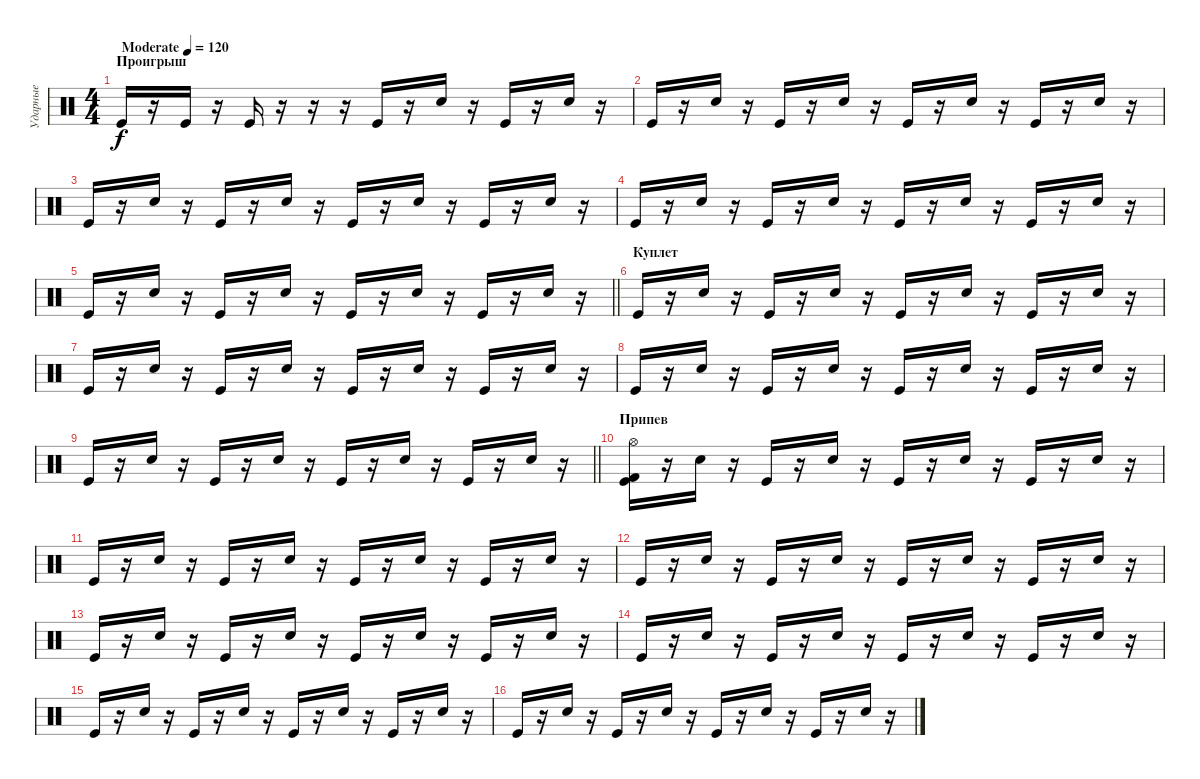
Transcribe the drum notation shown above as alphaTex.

\track ("Ударные" "Ударные") {instrument percussion}
\staff {score}
\articulation defaults
\ts (4 4)
\section ("" "Проигрыш")
\tempo (120 "Moderate")
\clef neutral
\ks c "Kick (hit)".16{dy f}
r.16 "Kick (hit)".16 r.16 "Kick (hit)".16 r.16 r.16 r.16 "Kick (hit)".16 r.16 "Electric Snare (hit)".16 r.16 "Kick (hit)".16 r.16 "Electric Snare (hit)".16 r.16 |
"Kick (hit)".16 r.16 "Electric Snare (hit)".16 r.16 "Kick (hit)".16 r.16 "Electric Snare (hit)".16 r.16 "Kick (hit)".16 r.16 "Electric Snare (hit)".16 r.16 "Kick (hit)".16 r.16 "Electric Snare (hit)".16 r.16 |
"Kick (hit)".16 r.16 "Electric Snare (hit)".16 r.16 "Kick (hit)".16 r.16 "Electric Snare (hit)".16 r.16 "Kick (hit)".16 r.16 "Electric Snare (hit)".16 r.16 "Kick (hit)".16 r.16 "Electric Snare (hit)".16 r.16 |
"Kick (hit)".16 r.16 "Electric Snare (hit)".16 r.16 "Kick (hit)".16 r.16 "Electric Snare (hit)".16 r.16 "Kick (hit)".16 r.16 "Electric Snare (hit)".16 r.16 "Kick (hit)".16 r.16 "Electric Snare (hit)".16 r.16 |
\barLineRight lightlight "Kick (hit)".16
r.16 "Electric Snare (hit)".16 r.16 "Kick (hit)".16 r.16 "Electric Snare (hit)".16 r.16 "Kick (hit)".16 r.16 "Electric Snare (hit)".16 r.16 "Kick (hit)".16 r.16 "Electric Snare (hit)".16 r.16 |
\section ("" "Куплет")
"Kick (hit)".16 r.16 "Electric Snare (hit)".16 r.16 "Kick (hit)".16 r.16 "Electric Snare (hit)".16 r.16 "Kick (hit)".16 r.16 "Electric Snare (hit)".16 r.16 "Kick (hit)".16 r.16 "Electric Snare (hit)".16 r.16 |
"Kick (hit)".16 r.16 "Electric Snare (hit)".16 r.16 "Kick (hit)".16 r.16 "Electric Snare (hit)".16 r.16 "Kick (hit)".16 r.16 "Electric Snare (hit)".16 r.16 "Kick (hit)".16 r.16 "Electric Snare (hit)".16 r.16 |
"Kick (hit)".16 r.16 "Electric Snare (hit)".16 r.16 "Kick (hit)".16 r.16 "Electric Snare (hit)".16 r.16 "Kick (hit)".16 r.16 "Electric Snare (hit)".16 r.16 "Kick (hit)".16 r.16 "Electric Snare (hit)".16 r.16 |
\barLineRight lightlight "Kick (hit)".16
r.16 "Electric Snare (hit)".16 r.16 "Kick (hit)".16 r.16 "Electric Snare (hit)".16 r.16 "Kick (hit)".16 r.16 "Electric Snare (hit)".16 r.16 "Kick (hit)".16 r.16 "Electric Snare (hit)".16 r.16 |
\section ("" "Припев")
("Kick (hit)" "Kick (hit) 2" "Hi-Hat (open)").16 r.16 "Electric Snare (hit)".16 r.16 "Kick (hit)".16 r.16 "Electric Snare (hit)".16 r.16 "Kick (hit)".16 r.16 "Electric Snare (hit)".16 r.16 "Kick (hit)".16 r.16 "Electric Snare (hit)".16 r.16 |
"Kick (hit)".16 r.16 "Electric Snare (hit)".16 r.16 "Kick (hit)".16 r.16 "Electric Snare (hit)".16 r.16 "Kick (hit)".16 r.16 "Electric Snare (hit)".16 r.16 "Kick (hit)".16 r.16 "Electric Snare (hit)".16 r.16 |
"Kick (hit)".16 r.16 "Electric Snare (hit)".16 r.16 "Kick (hit)".16 r.16 "Electric Snare (hit)".16 r.16 "Kick (hit)".16 r.16 "Electric Snare (hit)".16 r.16 "Kick (hit)".16 r.16 "Electric Snare (hit)".16 r.16 |
"Kick (hit)".16 r.16 "Electric Snare (hit)".16 r.16 "Kick (hit)".16 r.16 "Electric Snare (hit)".16 r.16 "Kick (hit)".16 r.16 "Electric Snare (hit)".16 r.16 "Kick (hit)".16 r.16 "Electric Snare (hit)".16 r.16 |
"Kick (hit)".16 r.16 "Electric Snare (hit)".16 r.16 "Kick (hit)".16 r.16 "Electric Snare (hit)".16 r.16 "Kick (hit)".16 r.16 "Electric Snare (hit)".16 r.16 "Kick (hit)".16 r.16 "Electric Snare (hit)".16 r.16 |
"Kick (hit)".16 r.16 "Electric Snare (hit)".16 r.16 "Kick (hit)".16 r.16 "Electric Snare (hit)".16 r.16 "Kick (hit)".16 r.16 "Electric Snare (hit)".16 r.16 "Kick (hit)".16 r.16 "Electric Snare (hit)".16 r.16 |
"Kick (hit)".16 r.16 "Electric Snare (hit)".16 r.16 "Kick (hit)".16 r.16 "Electric Snare (hit)".16 r.16 "Kick (hit)".16 r.16 "Electric Snare (hit)".16 r.16 "Kick (hit)".16 r.16 "Electric Snare (hit)".16 r.16
